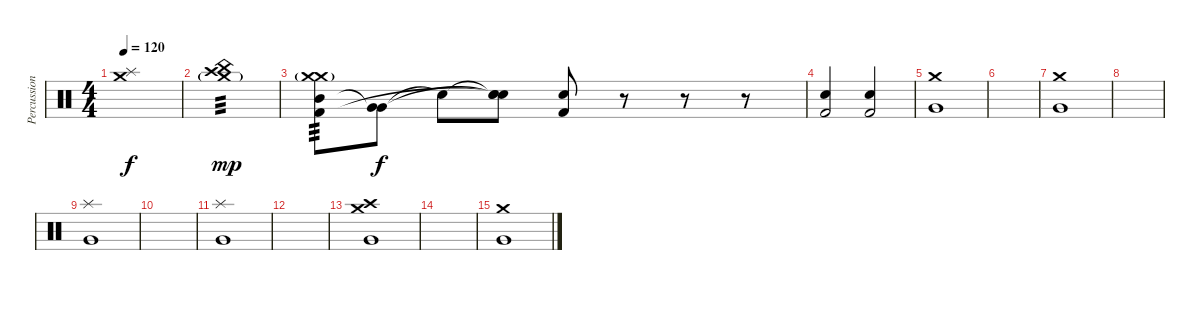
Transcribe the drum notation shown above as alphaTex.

\track ("Percussion" "Percussion") {instrument percussion}
\staff {score}
\articulation defaults
\ts (4 4)
\tempo 120
\clef neutral
\ks c
("Crash medium (hit)" "Splash (hit)").1{dy f} |
("China (hit)" "Crash medium (hit)"{g} "Crash high (hit)").1{tp 3 dy mp} |
("Mid Tom (hit)" "Crash medium (hit)" "Kick (hit) 2" "Crash medium (hit)"{g}).8{tp 3} ("Very Low Tom (hit)"{t} "Very Low Tom (hit)").8{dy f} "Snare (hit)"{t}.8 ("Snare (hit)"{t} "Snare (hit)"{t} "Snare (hit)"{t}).8 ("Metronome (bell)" "Kick (hit) 2").8 r.8 r.8 r.8 |
("Metronome (bell)" "Kick (hit) 2").2 ("Metronome (bell)" "Kick (hit) 2").2 |
("Crash medium (hit)" "Very Low Tom (hit)").1 |
|
("Crash medium (hit)" "Very Low Tom (hit)").1 |
|
("Splash (hit)" "Very Low Tom (hit)").1 |
|
("Splash (hit)" "Very Low Tom (hit)").1 |
|
("Crash medium (hit)" "Crash high (hit)" "Very Low Tom (hit)").1 |
|
("Crash medium (hit)" "Very Low Tom (hit)").1
